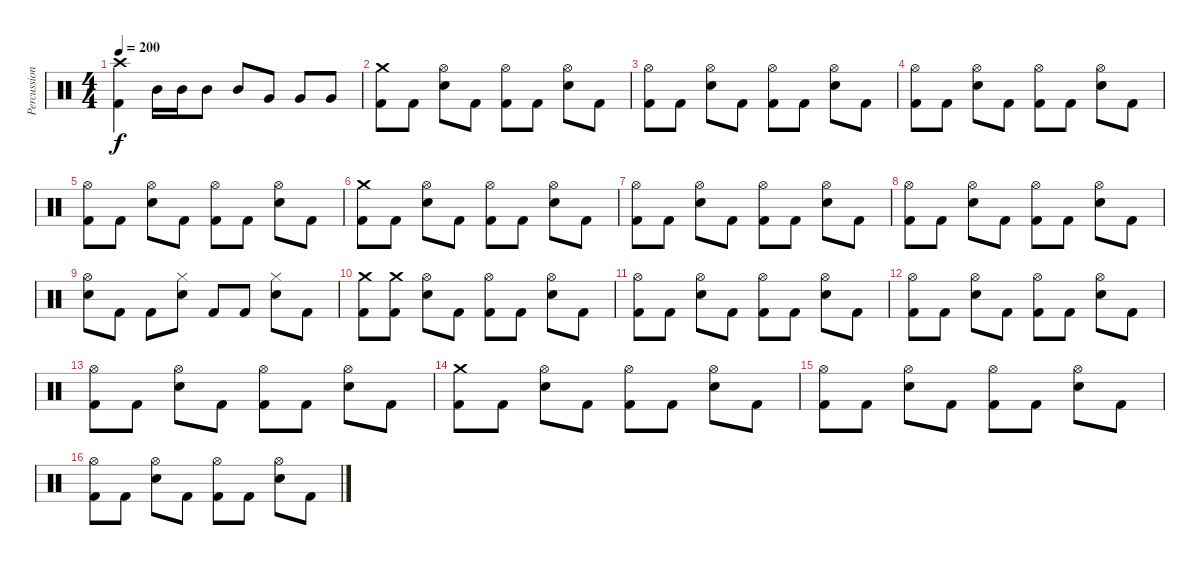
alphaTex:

\track ("Percussion" "Percussion") {instrument percussion}
\staff {score}
\articulation defaults
\ts (4 4)
\tempo 200
\clef neutral
\ks c
("Crash high (hit)" "Kick (hit) 2").4{dy f} "Mid Tom (hit)".16 "Mid Tom (hit)".16 "Mid Tom (hit)".8 "Mid Tom (hit)".8 "Very Low Tom (hit)".8 "Very Low Tom (hit)".8 "Very Low Tom (hit)".8 |
("Crash medium (hit)" "Kick (hit) 2").8 "Kick (hit) 2".8 ("Hi-Hat (open)" "Snare (hit) 2").8 "Kick (hit) 2".8 ("Hi-Hat (open)" "Kick (hit) 2").8 "Kick (hit) 2".8 ("Hi-Hat (open)" "Snare (hit) 2").8 "Kick (hit) 2".8 |
("Hi-Hat (open)" "Kick (hit) 2").8 "Kick (hit) 2".8 ("Hi-Hat (open)" "Snare (hit) 2").8 "Kick (hit) 2".8 ("Hi-Hat (open)" "Kick (hit) 2").8 "Kick (hit) 2".8 ("Hi-Hat (open)" "Snare (hit) 2").8 "Kick (hit) 2".8 |
("Hi-Hat (open)" "Kick (hit) 2").8 "Kick (hit) 2".8 ("Hi-Hat (open)" "Snare (hit) 2").8 "Kick (hit) 2".8 ("Hi-Hat (open)" "Kick (hit) 2").8 "Kick (hit) 2".8 ("Hi-Hat (open)" "Snare (hit) 2").8 "Kick (hit) 2".8 |
("Hi-Hat (open)" "Kick (hit) 2").8 "Kick (hit) 2".8 ("Hi-Hat (open)" "Snare (hit) 2").8 "Kick (hit) 2".8 ("Hi-Hat (open)" "Kick (hit) 2").8 "Kick (hit) 2".8 ("Hi-Hat (open)" "Snare (hit) 2").8 "Kick (hit) 2".8 |
("Crash medium (hit)" "Kick (hit) 2").8 "Kick (hit) 2".8 ("Hi-Hat (open)" "Snare (hit) 2").8 "Kick (hit) 2".8 ("Hi-Hat (open)" "Kick (hit) 2").8 "Kick (hit) 2".8 ("Hi-Hat (open)" "Snare (hit) 2").8 "Kick (hit) 2".8 |
("Hi-Hat (open)" "Kick (hit) 2").8 "Kick (hit) 2".8 ("Hi-Hat (open)" "Snare (hit) 2").8 "Kick (hit) 2".8 ("Hi-Hat (open)" "Kick (hit) 2").8 "Kick (hit) 2".8 ("Hi-Hat (open)" "Snare (hit) 2").8 "Kick (hit) 2".8 |
("Hi-Hat (open)" "Kick (hit) 2").8 "Kick (hit) 2".8 ("Hi-Hat (open)" "Snare (hit) 2").8 "Kick (hit) 2".8 ("Hi-Hat (open)" "Kick (hit) 2").8 "Kick (hit) 2".8 ("Hi-Hat (open)" "Snare (hit) 2").8 "Kick (hit) 2".8 |
("Hi-Hat (open)" "Snare (hit) 2").8 "Kick (hit) 2".8 "Kick (hit) 2".8 ("Hi-Hat (closed)" "Snare (hit) 2").8 "Kick (hit) 2".8 "Kick (hit) 2".8 ("Hi-Hat (closed)" "Snare (hit) 2").8 "Kick (hit) 2".8 |
("Crash medium (hit)" "Kick (hit) 2").8 ("Crash medium (hit)" "Kick (hit) 2").8 ("Hi-Hat (open)" "Snare (hit) 2").8 "Kick (hit) 2".8 ("Hi-Hat (open)" "Kick (hit) 2").8 "Kick (hit) 2".8 ("Hi-Hat (open)" "Snare (hit) 2").8 "Kick (hit) 2".8 |
("Hi-Hat (open)" "Kick (hit) 2").8 "Kick (hit) 2".8 ("Hi-Hat (open)" "Snare (hit) 2").8 "Kick (hit) 2".8 ("Hi-Hat (open)" "Kick (hit) 2").8 "Kick (hit) 2".8 ("Hi-Hat (open)" "Snare (hit) 2").8 "Kick (hit) 2".8 |
("Hi-Hat (open)" "Kick (hit) 2").8 "Kick (hit) 2".8 ("Hi-Hat (open)" "Snare (hit) 2").8 "Kick (hit) 2".8 ("Hi-Hat (open)" "Kick (hit) 2").8 "Kick (hit) 2".8 ("Hi-Hat (open)" "Snare (hit) 2").8 "Kick (hit) 2".8 |
("Hi-Hat (open)" "Kick (hit) 2").8 "Kick (hit) 2".8 ("Hi-Hat (open)" "Snare (hit) 2").8 "Kick (hit) 2".8 ("Hi-Hat (open)" "Kick (hit) 2").8 "Kick (hit) 2".8 ("Hi-Hat (open)" "Snare (hit) 2").8 "Kick (hit) 2".8 |
("Crash medium (hit)" "Kick (hit) 2").8 "Kick (hit) 2".8 ("Hi-Hat (open)" "Snare (hit) 2").8 "Kick (hit) 2".8 ("Hi-Hat (open)" "Kick (hit) 2").8 "Kick (hit) 2".8 ("Hi-Hat (open)" "Snare (hit) 2").8 "Kick (hit) 2".8 |
("Hi-Hat (open)" "Kick (hit) 2").8 "Kick (hit) 2".8 ("Hi-Hat (open)" "Snare (hit) 2").8 "Kick (hit) 2".8 ("Hi-Hat (open)" "Kick (hit) 2").8 "Kick (hit) 2".8 ("Hi-Hat (open)" "Snare (hit) 2").8 "Kick (hit) 2".8 |
("Hi-Hat (open)" "Kick (hit) 2").8 "Kick (hit) 2".8 ("Hi-Hat (open)" "Snare (hit) 2").8 "Kick (hit) 2".8 ("Hi-Hat (open)" "Kick (hit) 2").8 "Kick (hit) 2".8 ("Hi-Hat (open)" "Snare (hit) 2").8 "Kick (hit) 2".8
